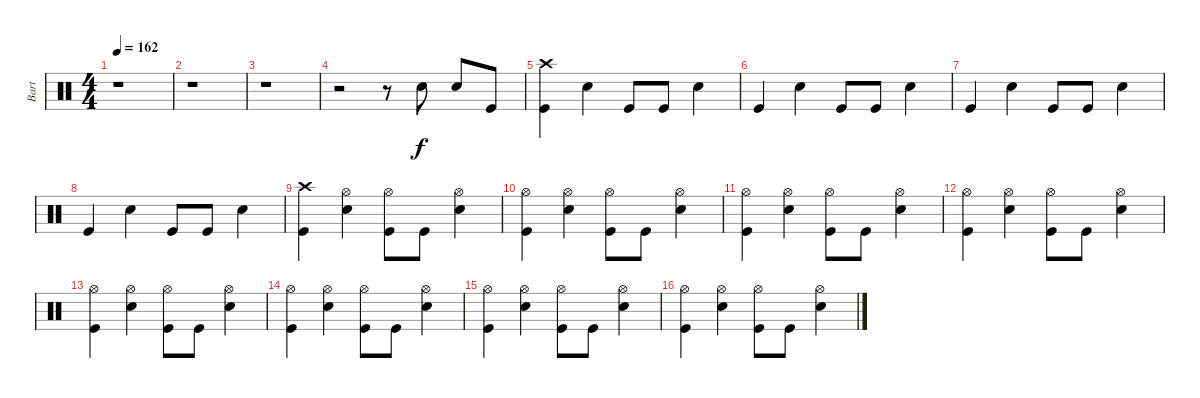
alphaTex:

\track ("Bart" "Bart") {instrument percussion}
\staff {score}
\articulation defaults
\ts (4 4)
\tempo 162
\clef neutral
\ks c
r.1{dy f} |
r.1 |
r.1 |
r.2 r.8 "Electric Snare (hit)".8 "Electric Snare (hit)".8 "Kick (hit)".8 |
("Kick (hit)" "Crash high (hit)").4 "Electric Snare (hit)".4 "Kick (hit)".8 "Kick (hit)".8 "Electric Snare (hit)".4 |
"Kick (hit)".4 "Electric Snare (hit)".4 "Kick (hit)".8 "Kick (hit)".8 "Electric Snare (hit)".4 |
"Kick (hit)".4 "Electric Snare (hit)".4 "Kick (hit)".8 "Kick (hit)".8 "Electric Snare (hit)".4 |
"Kick (hit)".4 "Electric Snare (hit)".4 "Kick (hit)".8 "Kick (hit)".8 "Electric Snare (hit)".4 |
("Kick (hit)" "Crash high (hit)").4 ("Electric Snare (hit)" "Hi-Hat (open)").4 ("Kick (hit)" "Hi-Hat (open)").8 "Kick (hit)".8 ("Electric Snare (hit)" "Hi-Hat (open)").4 |
("Kick (hit)" "Hi-Hat (open)").4 ("Electric Snare (hit)" "Hi-Hat (open)").4 ("Kick (hit)" "Hi-Hat (open)").8 "Kick (hit)".8 ("Electric Snare (hit)" "Hi-Hat (open)").4 |
("Kick (hit)" "Hi-Hat (open)").4 ("Electric Snare (hit)" "Hi-Hat (open)").4 ("Kick (hit)" "Hi-Hat (open)").8 "Kick (hit)".8 ("Electric Snare (hit)" "Hi-Hat (open)").4 |
("Kick (hit)" "Hi-Hat (open)").4 ("Electric Snare (hit)" "Hi-Hat (open)").4 ("Kick (hit)" "Hi-Hat (open)").8 "Kick (hit)".8 ("Electric Snare (hit)" "Hi-Hat (open)").4 |
("Kick (hit)" "Hi-Hat (open)").4 ("Electric Snare (hit)" "Hi-Hat (open)").4 ("Kick (hit)" "Hi-Hat (open)").8 "Kick (hit)".8 ("Electric Snare (hit)" "Hi-Hat (open)").4 |
("Kick (hit)" "Hi-Hat (open)").4 ("Electric Snare (hit)" "Hi-Hat (open)").4 ("Kick (hit)" "Hi-Hat (open)").8 "Kick (hit)".8 ("Electric Snare (hit)" "Hi-Hat (open)").4 |
("Kick (hit)" "Hi-Hat (open)").4 ("Electric Snare (hit)" "Hi-Hat (open)").4 ("Kick (hit)" "Hi-Hat (open)").8 "Kick (hit)".8 ("Electric Snare (hit)" "Hi-Hat (open)").4 |
("Kick (hit)" "Hi-Hat (open)").4 ("Electric Snare (hit)" "Hi-Hat (open)").4 ("Kick (hit)" "Hi-Hat (open)").8 "Kick (hit)".8 ("Electric Snare (hit)" "Hi-Hat (open)").4
